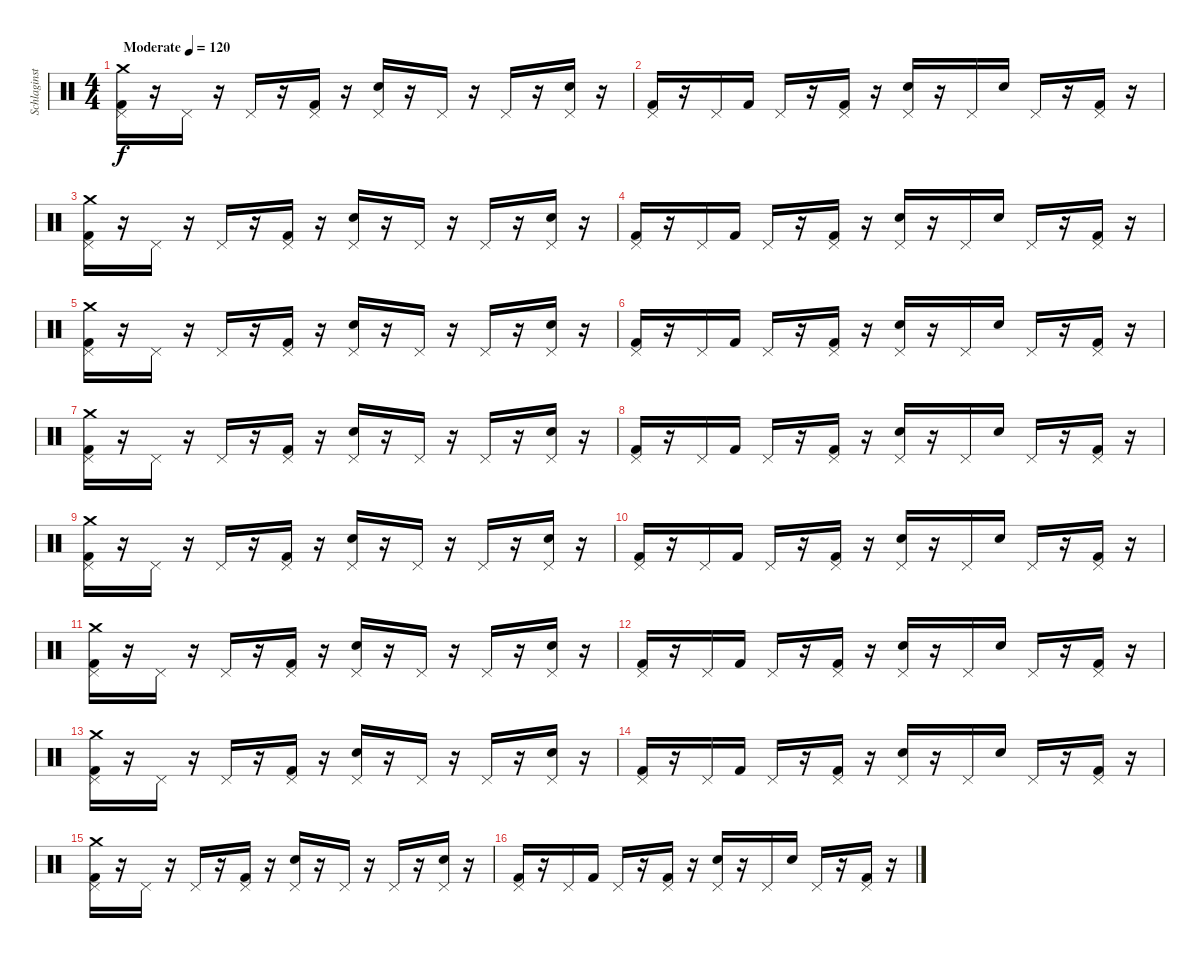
\track ("Schlaginstrumente - Auswahl" "Schlaginst") {instrument percussion}
\staff {score}
\articulation defaults
\ts (4 4)
\tempo (120 "Moderate")
\clef neutral
\ks c
("Crash medium (hit)" "Pedal Hi-Hat (hit)" "Kick (hit) 2").16{dy f} r.16 "Pedal Hi-Hat (hit)".16 r.16 "Pedal Hi-Hat (hit)".16 r.16 ("Pedal Hi-Hat (hit)" "Kick (hit) 2").16 r.16 ("Pedal Hi-Hat (hit)" "Electric Snare (hit)").16 r.16 "Pedal Hi-Hat (hit)".16 r.16 "Pedal Hi-Hat (hit)".16 r.16 ("Pedal Hi-Hat (hit)" "Electric Snare (hit)").16 r.16 |
("Pedal Hi-Hat (hit)" "Kick (hit) 2").16 r.16 "Pedal Hi-Hat (hit)".16 "Kick (hit) 2".16 "Pedal Hi-Hat (hit)".16 r.16 ("Pedal Hi-Hat (hit)" "Kick (hit) 2").16 r.16 ("Pedal Hi-Hat (hit)" "Electric Snare (hit)").16 r.16 "Pedal Hi-Hat (hit)".16 "Electric Snare (hit)".16 "Pedal Hi-Hat (hit)".16 r.16 ("Pedal Hi-Hat (hit)" "Kick (hit) 2").16 r.16 |
("Crash medium (hit)" "Pedal Hi-Hat (hit)" "Kick (hit) 2").16 r.16 "Pedal Hi-Hat (hit)".16 r.16 "Pedal Hi-Hat (hit)".16 r.16 ("Pedal Hi-Hat (hit)" "Kick (hit) 2").16 r.16 ("Pedal Hi-Hat (hit)" "Electric Snare (hit)").16 r.16 "Pedal Hi-Hat (hit)".16 r.16 "Pedal Hi-Hat (hit)".16 r.16 ("Pedal Hi-Hat (hit)" "Electric Snare (hit)").16 r.16 |
("Pedal Hi-Hat (hit)" "Kick (hit) 2").16 r.16 "Pedal Hi-Hat (hit)".16 "Kick (hit) 2".16 "Pedal Hi-Hat (hit)".16 r.16 ("Pedal Hi-Hat (hit)" "Kick (hit) 2").16 r.16 ("Pedal Hi-Hat (hit)" "Electric Snare (hit)").16 r.16 "Pedal Hi-Hat (hit)".16 "Electric Snare (hit)".16 "Pedal Hi-Hat (hit)".16 r.16 ("Pedal Hi-Hat (hit)" "Kick (hit) 2").16 r.16 |
("Crash medium (hit)" "Pedal Hi-Hat (hit)" "Kick (hit) 2").16 r.16 "Pedal Hi-Hat (hit)".16 r.16 "Pedal Hi-Hat (hit)".16 r.16 ("Pedal Hi-Hat (hit)" "Kick (hit) 2").16 r.16 ("Pedal Hi-Hat (hit)" "Electric Snare (hit)").16 r.16 "Pedal Hi-Hat (hit)".16 r.16 "Pedal Hi-Hat (hit)".16 r.16 ("Pedal Hi-Hat (hit)" "Electric Snare (hit)").16 r.16 |
("Pedal Hi-Hat (hit)" "Kick (hit) 2").16 r.16 "Pedal Hi-Hat (hit)".16 "Kick (hit) 2".16 "Pedal Hi-Hat (hit)".16 r.16 ("Pedal Hi-Hat (hit)" "Kick (hit) 2").16 r.16 ("Pedal Hi-Hat (hit)" "Electric Snare (hit)").16 r.16 "Pedal Hi-Hat (hit)".16 "Electric Snare (hit)".16 "Pedal Hi-Hat (hit)".16 r.16 ("Pedal Hi-Hat (hit)" "Kick (hit) 2").16 r.16 |
("Crash medium (hit)" "Pedal Hi-Hat (hit)" "Kick (hit) 2").16 r.16 "Pedal Hi-Hat (hit)".16 r.16 "Pedal Hi-Hat (hit)".16 r.16 ("Pedal Hi-Hat (hit)" "Kick (hit) 2").16 r.16 ("Pedal Hi-Hat (hit)" "Electric Snare (hit)").16 r.16 "Pedal Hi-Hat (hit)".16 r.16 "Pedal Hi-Hat (hit)".16 r.16 ("Pedal Hi-Hat (hit)" "Electric Snare (hit)").16 r.16 |
("Pedal Hi-Hat (hit)" "Kick (hit) 2").16 r.16 "Pedal Hi-Hat (hit)".16 "Kick (hit) 2".16 "Pedal Hi-Hat (hit)".16 r.16 ("Pedal Hi-Hat (hit)" "Kick (hit) 2").16 r.16 ("Pedal Hi-Hat (hit)" "Electric Snare (hit)").16 r.16 "Pedal Hi-Hat (hit)".16 "Electric Snare (hit)".16 "Pedal Hi-Hat (hit)".16 r.16 ("Pedal Hi-Hat (hit)" "Kick (hit) 2").16 r.16 |
("Crash medium (hit)" "Pedal Hi-Hat (hit)" "Kick (hit) 2").16 r.16 "Pedal Hi-Hat (hit)".16 r.16 "Pedal Hi-Hat (hit)".16 r.16 ("Pedal Hi-Hat (hit)" "Kick (hit) 2").16 r.16 ("Pedal Hi-Hat (hit)" "Electric Snare (hit)").16 r.16 "Pedal Hi-Hat (hit)".16 r.16 "Pedal Hi-Hat (hit)".16 r.16 ("Pedal Hi-Hat (hit)" "Electric Snare (hit)").16 r.16 |
("Pedal Hi-Hat (hit)" "Kick (hit) 2").16 r.16 "Pedal Hi-Hat (hit)".16 "Kick (hit) 2".16 "Pedal Hi-Hat (hit)".16 r.16 ("Pedal Hi-Hat (hit)" "Kick (hit) 2").16 r.16 ("Pedal Hi-Hat (hit)" "Electric Snare (hit)").16 r.16 "Pedal Hi-Hat (hit)".16 "Electric Snare (hit)".16 "Pedal Hi-Hat (hit)".16 r.16 ("Pedal Hi-Hat (hit)" "Kick (hit) 2").16 r.16 |
("Crash medium (hit)" "Pedal Hi-Hat (hit)" "Kick (hit) 2").16 r.16 "Pedal Hi-Hat (hit)".16 r.16 "Pedal Hi-Hat (hit)".16 r.16 ("Pedal Hi-Hat (hit)" "Kick (hit) 2").16 r.16 ("Pedal Hi-Hat (hit)" "Electric Snare (hit)").16 r.16 "Pedal Hi-Hat (hit)".16 r.16 "Pedal Hi-Hat (hit)".16 r.16 ("Pedal Hi-Hat (hit)" "Electric Snare (hit)").16 r.16 |
("Pedal Hi-Hat (hit)" "Kick (hit) 2").16 r.16 "Pedal Hi-Hat (hit)".16 "Kick (hit) 2".16 "Pedal Hi-Hat (hit)".16 r.16 ("Pedal Hi-Hat (hit)" "Kick (hit) 2").16 r.16 ("Pedal Hi-Hat (hit)" "Electric Snare (hit)").16 r.16 "Pedal Hi-Hat (hit)".16 "Electric Snare (hit)".16 "Pedal Hi-Hat (hit)".16 r.16 ("Pedal Hi-Hat (hit)" "Kick (hit) 2").16 r.16 |
("Crash medium (hit)" "Pedal Hi-Hat (hit)" "Kick (hit) 2").16 r.16 "Pedal Hi-Hat (hit)".16 r.16 "Pedal Hi-Hat (hit)".16 r.16 ("Pedal Hi-Hat (hit)" "Kick (hit) 2").16 r.16 ("Pedal Hi-Hat (hit)" "Electric Snare (hit)").16 r.16 "Pedal Hi-Hat (hit)".16 r.16 "Pedal Hi-Hat (hit)".16 r.16 ("Pedal Hi-Hat (hit)" "Electric Snare (hit)").16 r.16 |
("Pedal Hi-Hat (hit)" "Kick (hit) 2").16 r.16 "Pedal Hi-Hat (hit)".16 "Kick (hit) 2".16 "Pedal Hi-Hat (hit)".16 r.16 ("Pedal Hi-Hat (hit)" "Kick (hit) 2").16 r.16 ("Pedal Hi-Hat (hit)" "Electric Snare (hit)").16 r.16 "Pedal Hi-Hat (hit)".16 "Electric Snare (hit)".16 "Pedal Hi-Hat (hit)".16 r.16 ("Pedal Hi-Hat (hit)" "Kick (hit) 2").16 r.16 |
("Crash medium (hit)" "Pedal Hi-Hat (hit)" "Kick (hit) 2").16 r.16 "Pedal Hi-Hat (hit)".16 r.16 "Pedal Hi-Hat (hit)".16 r.16 ("Pedal Hi-Hat (hit)" "Kick (hit) 2").16 r.16 ("Pedal Hi-Hat (hit)" "Electric Snare (hit)").16 r.16 "Pedal Hi-Hat (hit)".16 r.16 "Pedal Hi-Hat (hit)".16 r.16 ("Pedal Hi-Hat (hit)" "Electric Snare (hit)").16 r.16 |
("Pedal Hi-Hat (hit)" "Kick (hit) 2").16 r.16 "Pedal Hi-Hat (hit)".16 "Kick (hit) 2".16 "Pedal Hi-Hat (hit)".16 r.16 ("Pedal Hi-Hat (hit)" "Kick (hit) 2").16 r.16 ("Pedal Hi-Hat (hit)" "Electric Snare (hit)").16 r.16 "Pedal Hi-Hat (hit)".16 "Electric Snare (hit)".16 "Pedal Hi-Hat (hit)".16 r.16 ("Pedal Hi-Hat (hit)" "Kick (hit) 2").16 r.16
